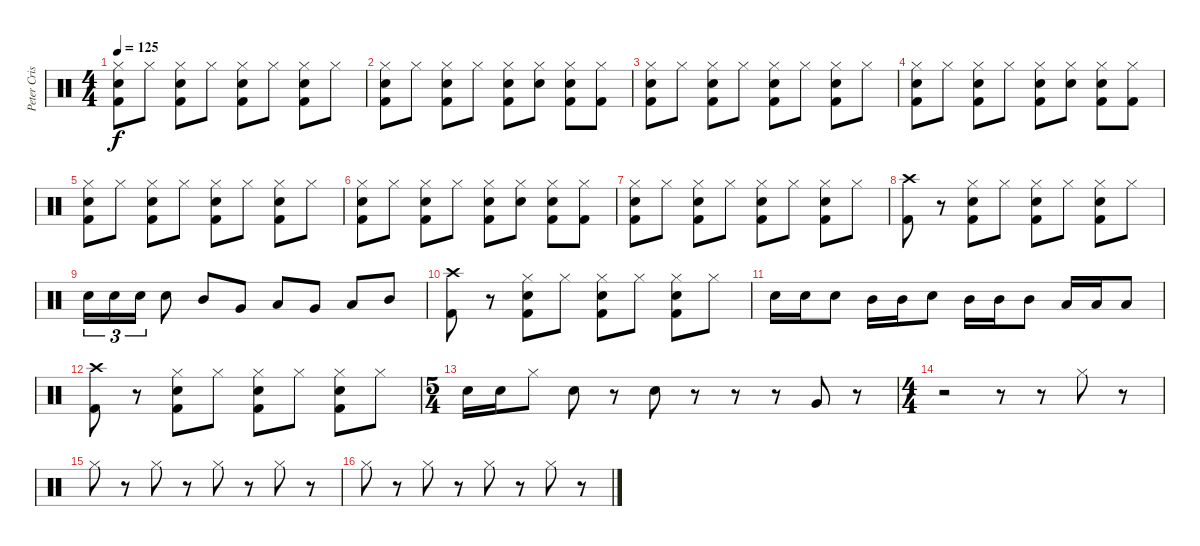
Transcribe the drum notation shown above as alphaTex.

\track ("Peter Criss" "Peter Cris") {instrument percussion}
\staff {score}
\articulation defaults
\ts (4 4)
\tempo 125
\clef neutral
\ks c
("Hi-Hat (closed)" "Electric Snare (hit)" "Kick (hit) 2").8{dy f} "Hi-Hat (closed)".8 ("Hi-Hat (closed)" "Electric Snare (hit)" "Kick (hit) 2").8 "Hi-Hat (closed)".8 ("Hi-Hat (closed)" "Electric Snare (hit)" "Kick (hit) 2").8 "Hi-Hat (closed)".8 ("Hi-Hat (closed)" "Electric Snare (hit)" "Kick (hit) 2").8 "Hi-Hat (closed)".8 |
("Hi-Hat (closed)" "Electric Snare (hit)" "Kick (hit) 2").8 "Hi-Hat (closed)".8 ("Hi-Hat (closed)" "Electric Snare (hit)" "Kick (hit) 2").8 "Hi-Hat (closed)".8 ("Hi-Hat (closed)" "Electric Snare (hit)" "Kick (hit) 2").8 ("Hi-Hat (closed)" "Electric Snare (hit)").8 ("Hi-Hat (closed)" "Electric Snare (hit)" "Kick (hit) 2").8 ("Hi-Hat (closed)" "Kick (hit) 2").8 |
("Hi-Hat (closed)" "Electric Snare (hit)" "Kick (hit) 2").8 "Hi-Hat (closed)".8 ("Hi-Hat (closed)" "Electric Snare (hit)" "Kick (hit) 2").8 "Hi-Hat (closed)".8 ("Hi-Hat (closed)" "Electric Snare (hit)" "Kick (hit) 2").8 "Hi-Hat (closed)".8 ("Hi-Hat (closed)" "Electric Snare (hit)" "Kick (hit) 2").8 "Hi-Hat (closed)".8 |
("Hi-Hat (closed)" "Electric Snare (hit)" "Kick (hit) 2").8 "Hi-Hat (closed)".8 ("Hi-Hat (closed)" "Electric Snare (hit)" "Kick (hit) 2").8 "Hi-Hat (closed)".8 ("Hi-Hat (closed)" "Electric Snare (hit)" "Kick (hit) 2").8 ("Hi-Hat (closed)" "Electric Snare (hit)").8 ("Hi-Hat (closed)" "Electric Snare (hit)" "Kick (hit) 2").8 ("Hi-Hat (closed)" "Kick (hit) 2").8 |
("Hi-Hat (closed)" "Electric Snare (hit)" "Kick (hit) 2").8 "Hi-Hat (closed)".8 ("Hi-Hat (closed)" "Electric Snare (hit)" "Kick (hit) 2").8 "Hi-Hat (closed)".8 ("Hi-Hat (closed)" "Electric Snare (hit)" "Kick (hit) 2").8 "Hi-Hat (closed)".8 ("Hi-Hat (closed)" "Electric Snare (hit)" "Kick (hit) 2").8 "Hi-Hat (closed)".8 |
("Hi-Hat (closed)" "Electric Snare (hit)" "Kick (hit) 2").8 "Hi-Hat (closed)".8 ("Hi-Hat (closed)" "Electric Snare (hit)" "Kick (hit) 2").8 "Hi-Hat (closed)".8 ("Hi-Hat (closed)" "Electric Snare (hit)" "Kick (hit) 2").8 ("Hi-Hat (closed)" "Electric Snare (hit)").8 ("Hi-Hat (closed)" "Electric Snare (hit)" "Kick (hit) 2").8 ("Hi-Hat (closed)" "Kick (hit) 2").8 |
("Hi-Hat (closed)" "Electric Snare (hit)" "Kick (hit) 2").8 "Hi-Hat (closed)".8 ("Hi-Hat (closed)" "Electric Snare (hit)" "Kick (hit) 2").8 "Hi-Hat (closed)".8 ("Hi-Hat (closed)" "Electric Snare (hit)" "Kick (hit) 2").8 "Hi-Hat (closed)".8 ("Hi-Hat (closed)" "Electric Snare (hit)" "Kick (hit) 2").8 "Hi-Hat (closed)".8 |
("Crash high (hit)" "Kick (hit) 2").8 r.8 ("Hi-Hat (closed)" "Electric Snare (hit)" "Kick (hit) 2").8 "Hi-Hat (closed)".8 ("Hi-Hat (closed)" "Electric Snare (hit)" "Kick (hit) 2").8 "Hi-Hat (closed)".8 ("Hi-Hat (closed)" "Electric Snare (hit)" "Kick (hit) 2").8 "Hi-Hat (closed)".8 |
"Electric Snare (hit)".16{tu (3 2)} "Electric Snare (hit)".16{tu (3 2)} "Electric Snare (hit)".16{tu (3 2)} "Electric Snare (hit)".8 "Mid Tom (hit)".8 "Very Low Tom (hit)".8 "Low Tom (hit)".8 "Very Low Tom (hit)".8 "Low Tom (hit)".8 "Mid Tom (hit)".8 |
("Crash high (hit)" "Kick (hit) 2").8 r.8 ("Hi-Hat (closed)" "Electric Snare (hit)" "Kick (hit) 2").8 "Hi-Hat (closed)".8 ("Hi-Hat (closed)" "Electric Snare (hit)" "Kick (hit) 2").8 "Hi-Hat (closed)".8 ("Hi-Hat (closed)" "Electric Snare (hit)" "Kick (hit) 2").8 "Hi-Hat (closed)".8 |
"Electric Snare (hit)".16 "Electric Snare (hit)".16 "Electric Snare (hit)".8 "Mid Tom (hit)".16 "Mid Tom (hit)".16 "Electric Snare (hit)".8 "Mid Tom (hit)".16 "Mid Tom (hit)".16 "Mid Tom (hit)".8 "Low Tom (hit)".16 "Low Tom (hit)".16 "Low Tom (hit)".8 |
("Crash high (hit)" "Kick (hit) 2").8 r.8 ("Hi-Hat (closed)" "Electric Snare (hit)" "Kick (hit) 2").8 "Hi-Hat (closed)".8 ("Hi-Hat (closed)" "Electric Snare (hit)" "Kick (hit) 2").8 "Hi-Hat (closed)".8 ("Hi-Hat (closed)" "Electric Snare (hit)" "Kick (hit) 2").8 "Hi-Hat (closed)".8 |
\ts (5 4)
"Electric Snare (hit)".16 "Electric Snare (hit)".16 "Hi-Hat (closed)".8 "Electric Snare (hit)".8 r.8 "Electric Snare (hit)".8 r.8 r.8 r.8 "Very Low Tom (hit)".8 r.8 |
\ts (4 4)
r.2 r.8 r.8 "Hi-Hat (closed)".8 r.8 |
"Hi-Hat (closed)".8 r.8 "Hi-Hat (closed)".8 r.8 "Hi-Hat (closed)".8 r.8 "Hi-Hat (closed)".8 r.8 |
"Hi-Hat (closed)".8 r.8 "Hi-Hat (closed)".8 r.8 "Hi-Hat (closed)".8 r.8 "Hi-Hat (closed)".8 r.8
